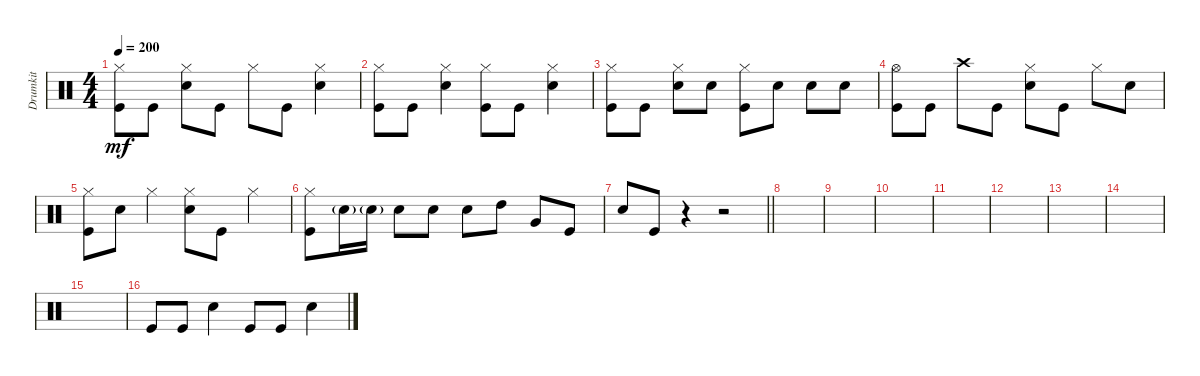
\track ("Drumkit" "Drumkit") {instrument percussion}
\staff {score}
\articulation defaults
\ts (4 4)
\tempo 200
\clef neutral
\ks c
("Hi-Hat (closed)" "Kick (hit)").8{dy mf} "Kick (hit)".8 ("Hi-Hat (closed)" "Snare (hit) 2").8 "Kick (hit)".8 "Hi-Hat (closed)".8 "Kick (hit)".8 ("Hi-Hat (closed)" "Snare (hit) 2").4 |
("Hi-Hat (closed)" "Kick (hit)").8 "Kick (hit)".8 ("Hi-Hat (closed)" "Snare (hit) 2").4 ("Hi-Hat (closed)" "Kick (hit)").8 "Kick (hit)".8 ("Hi-Hat (closed)" "Snare (hit) 2").4 |
("Hi-Hat (closed)" "Kick (hit)").8 "Kick (hit)".8 ("Hi-Hat (closed)" "Snare (hit) 2").8 "Snare (hit) 2".8 ("Hi-Hat (closed)" "Kick (hit)").8 "Snare (hit) 2".8 "Snare (hit) 2".8 "Snare (hit) 2".8 |
("Hi-Hat (open)" "Kick (hit)").8 "Kick (hit)".8 "Crash high (hit)".8 "Kick (hit)".8 ("Hi-Hat (closed)" "Snare (hit) 2").8 "Kick (hit)".8 "Hi-Hat (closed)".8 "Snare (hit) 2".8 |
("Hi-Hat (closed)" "Kick (hit)").8 "Snare (hit) 2".8 "Hi-Hat (closed)".4 ("Hi-Hat (closed)" "Snare (hit) 2").8 "Kick (hit)".8 "Hi-Hat (closed)".4 |
("Hi-Hat (closed)" "Kick (hit)").8 "Snare (hit) 2"{g}.16 "Snare (hit) 2"{g}.16 "Snare (hit) 2".8 "Snare (hit) 2".8 "Snare (hit) 2".8 "High Tom (hit)".8 "Very Low Tom (hit)".8 "Kick (hit)".8 |
\barLineRight lightlight "Snare (hit) 2".8 "Kick (hit)".8
r.4 r.2 |
|
|
|
|
|
|
|
|
"Kick (hit)".8 "Kick (hit)".8 "Snare (hit) 2".4 "Kick (hit)".8 "Kick (hit)".8 "Snare (hit) 2".4
